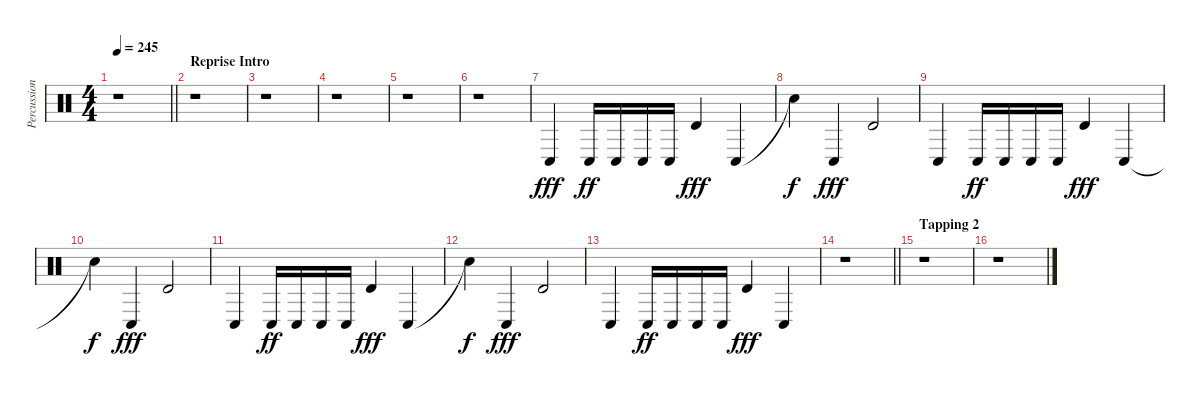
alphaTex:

\track ("Percussions Main droite" "Percussion") {instrument percussion}
\staff {score}
\articulation defaults
\ts (4 4)
\tempo 245
\clef neutral
\barLineRight lightlight
\ks c
r.1{dy fff} |
\section ("" "Reprise Intro")
r.1 |
r.1 |
r.1 |
r.1 |
r.1 |
"Conga low (hit)".4 "Conga low (hit)".16{dy ff} "Conga low (hit)".16 "Conga low (hit)".16 "Conga low (hit)".16 "Timbale high (hit)".4{dy fff} "Conga low (hit)".4 |
"Snare (hit)"{t}.4{dy f} "Conga low (hit)".4{dy fff} "Timbale high (hit)".2 |
"Conga low (hit)".4 "Conga low (hit)".16{dy ff} "Conga low (hit)".16 "Conga low (hit)".16 "Conga low (hit)".16 "Timbale high (hit)".4{dy fff} "Conga low (hit)".4 |
"Snare (hit)"{t}.4{dy f} "Conga low (hit)".4{dy fff} "Timbale high (hit)".2 |
"Conga low (hit)".4 "Conga low (hit)".16{dy ff} "Conga low (hit)".16 "Conga low (hit)".16 "Conga low (hit)".16 "Timbale high (hit)".4{dy fff} "Conga low (hit)".4 |
"Snare (hit)"{t}.4{dy f} "Conga low (hit)".4{dy fff} "Timbale high (hit)".2 |
"Conga low (hit)".4 "Conga low (hit)".16{dy ff} "Conga low (hit)".16 "Conga low (hit)".16 "Conga low (hit)".16 "Timbale high (hit)".4{dy fff} "Conga low (hit)".4 |
\barLineRight lightlight
r.1 |
\section ("" "Tapping 2")
r.1 |
r.1
